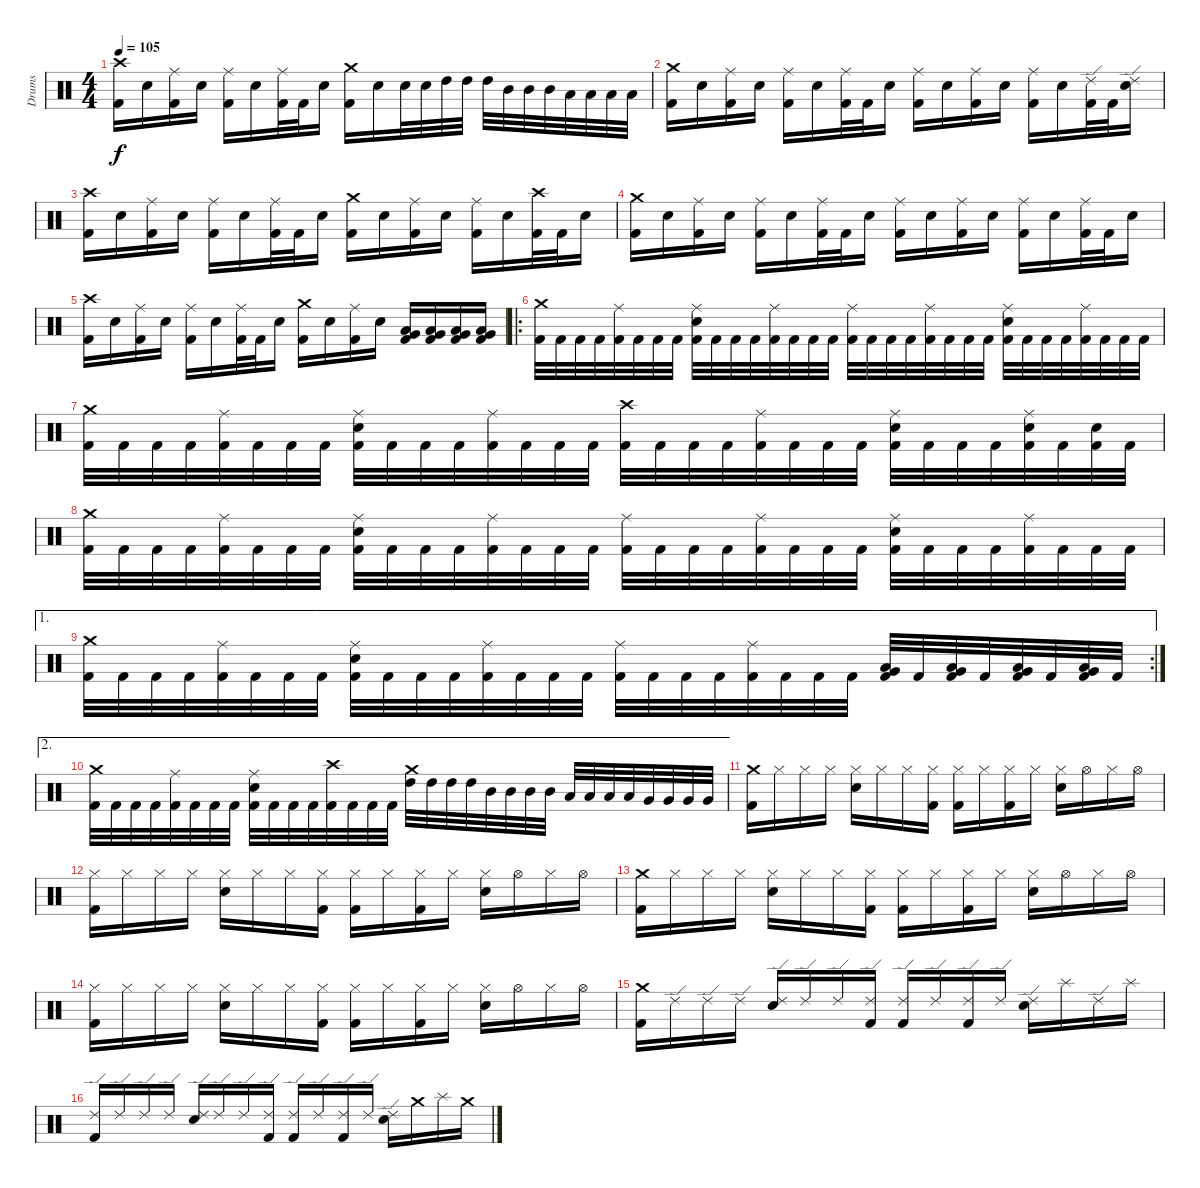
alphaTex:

\track ("Drums" "Drums") {instrument percussion}
\staff {score}
\articulation defaults
\ts (4 4)
\tempo 105
\clef neutral
\ks c
("Kick (hit) 2" "Crash high (hit)").16{dy f} "Electric Snare (hit)".16 ("Kick (hit) 2" "Ride (middle)").16 "Electric Snare (hit)".16 ("Kick (hit) 2" "Ride (middle)").16 "Electric Snare (hit)".16 ("Kick (hit) 2" "Ride (middle)").32 "Kick (hit) 2".32 "Electric Snare (hit)".16 ("Kick (hit) 2" "Crash medium (hit)").16 "Electric Snare (hit)".16 "Electric Snare (hit)".32 "Electric Snare (hit)".32 "High Tom (hit)".32 "High Tom (hit)".32 "High Tom (hit)".32 "Mid Tom (hit)".32 "Mid Tom (hit)".32 "Mid Tom (hit)".32 "Low Tom (hit)".32 "Low Tom (hit)".32 "Low Tom (hit)".32 "Low Tom (hit)".32 |
("Kick (hit) 2" "Crash medium (hit)").16 "Electric Snare (hit)".16 ("Kick (hit) 2" "Ride (middle)").16 "Electric Snare (hit)".16 ("Kick (hit) 2" "Ride (middle)").16 "Electric Snare (hit)".16 ("Kick (hit) 2" "Ride (middle)").32 "Kick (hit) 2".32 "Electric Snare (hit)".16 ("Kick (hit) 2" "Ride (middle)").16 "Electric Snare (hit)".16 ("Kick (hit) 2" "Ride (middle)").16 "Electric Snare (hit)".16 ("Kick (hit) 2" "Ride (middle)").16 "Electric Snare (hit)".16 ("Kick (hit) 2" "Ride (edge) 2").32 "Kick (hit) 2".32 ("Electric Snare (hit)" "Ride (edge) 2").16 |
("Kick (hit) 2" "Crash high (hit)").16 "Electric Snare (hit)".16 ("Kick (hit) 2" "Ride (middle)").16 "Electric Snare (hit)".16 ("Kick (hit) 2" "Ride (middle)").16 "Electric Snare (hit)".16 ("Kick (hit) 2" "Ride (middle)").32 "Kick (hit) 2".32 "Electric Snare (hit)".16 ("Kick (hit) 2" "Crash medium (hit)").16 "Electric Snare (hit)".16 ("Kick (hit) 2" "Ride (middle)").16 "Electric Snare (hit)".16 ("Kick (hit) 2" "Ride (middle)").16 "Electric Snare (hit)".16 ("Kick (hit) 2" "Crash high (hit)").32 "Kick (hit) 2".32 "Electric Snare (hit)".16 |
("Kick (hit) 2" "Crash medium (hit)").16 "Electric Snare (hit)".16 ("Kick (hit) 2" "Ride (middle)").16 "Electric Snare (hit)".16 ("Kick (hit) 2" "Ride (middle)").16 "Electric Snare (hit)".16 ("Kick (hit) 2" "Ride (middle)").32 "Kick (hit) 2".32 "Electric Snare (hit)".16 ("Kick (hit) 2" "Ride (middle)").16 "Electric Snare (hit)".16 ("Kick (hit) 2" "Ride (middle)").16 "Electric Snare (hit)".16 ("Kick (hit) 2" "Ride (middle)").16 "Electric Snare (hit)".16 ("Kick (hit) 2" "Ride (middle)").32 "Kick (hit) 2".32 "Electric Snare (hit)".16 |
("Kick (hit) 2" "Crash high (hit)").16 "Electric Snare (hit)".16 ("Kick (hit) 2" "Ride (middle)").16 "Electric Snare (hit)".16 ("Kick (hit) 2" "Ride (middle)").16 "Electric Snare (hit)".16 ("Kick (hit) 2" "Ride (middle)").32 "Kick (hit) 2".32 "Electric Snare (hit)".16 ("Kick (hit) 2" "Crash medium (hit)").16 "Electric Snare (hit)".16 ("Kick (hit) 2" "Ride (middle)").16 "Electric Snare (hit)".16 ("Kick (hit) 2" "Very Low Tom (hit)" "Low Tom (hit)").16 ("Kick (hit) 2" "Very Low Tom (hit)" "Low Tom (hit)").16 ("Kick (hit) 2" "Very Low Tom (hit)" "Low Tom (hit)").16 ("Kick (hit) 2" "Very Low Tom (hit)" "Low Tom (hit)").16 |
\ro
("Kick (hit) 2" "Crash medium (hit)").32 "Kick (hit) 2".32 "Kick (hit) 2".32 "Kick (hit) 2".32 ("Kick (hit) 2" "Ride (middle)").32 "Kick (hit) 2".32 "Kick (hit) 2".32 "Kick (hit) 2".32 ("Kick (hit) 2" "Electric Snare (hit)" "Ride (middle)").32 "Kick (hit) 2".32 "Kick (hit) 2".32 "Kick (hit) 2".32 ("Kick (hit) 2" "Ride (middle)").32 "Kick (hit) 2".32 "Kick (hit) 2".32 "Kick (hit) 2".32 ("Kick (hit) 2" "Ride (middle)").32 "Kick (hit) 2".32 "Kick (hit) 2".32 "Kick (hit) 2".32 ("Kick (hit) 2" "Ride (middle)").32 "Kick (hit) 2".32 "Kick (hit) 2".32 "Kick (hit) 2".32 ("Kick (hit) 2" "Electric Snare (hit)" "Ride (middle)").32 "Kick (hit) 2".32 "Kick (hit) 2".32 "Kick (hit) 2".32 ("Kick (hit) 2" "Ride (middle)").32 "Kick (hit) 2".32 "Kick (hit) 2".32 "Kick (hit) 2".32 |
("Kick (hit) 2" "Crash medium (hit)").32 "Kick (hit) 2".32 "Kick (hit) 2".32 "Kick (hit) 2".32 ("Kick (hit) 2" "Ride (middle)").32 "Kick (hit) 2".32 "Kick (hit) 2".32 "Kick (hit) 2".32 ("Kick (hit) 2" "Electric Snare (hit)" "Ride (middle)").32 "Kick (hit) 2".32 "Kick (hit) 2".32 "Kick (hit) 2".32 ("Kick (hit) 2" "Ride (middle)").32 "Kick (hit) 2".32 "Kick (hit) 2".32 "Kick (hit) 2".32 ("Kick (hit) 2" "Crash high (hit)").32 "Kick (hit) 2".32 "Kick (hit) 2".32 "Kick (hit) 2".32 ("Kick (hit) 2" "Ride (middle)").32 "Kick (hit) 2".32 "Kick (hit) 2".32 "Kick (hit) 2".32 ("Kick (hit) 2" "Electric Snare (hit)" "Ride (middle)").32 "Kick (hit) 2".32 "Kick (hit) 2".32 "Kick (hit) 2".32 ("Kick (hit) 2" "Electric Snare (hit)" "Ride (middle)").32 "Kick (hit) 2".32 ("Kick (hit) 2" "Electric Snare (hit)").32 "Kick (hit) 2".32 |
("Kick (hit) 2" "Crash medium (hit)").32 "Kick (hit) 2".32 "Kick (hit) 2".32 "Kick (hit) 2".32 ("Kick (hit) 2" "Ride (middle)").32 "Kick (hit) 2".32 "Kick (hit) 2".32 "Kick (hit) 2".32 ("Kick (hit) 2" "Electric Snare (hit)" "Ride (middle)").32 "Kick (hit) 2".32 "Kick (hit) 2".32 "Kick (hit) 2".32 ("Kick (hit) 2" "Ride (middle)").32 "Kick (hit) 2".32 "Kick (hit) 2".32 "Kick (hit) 2".32 ("Kick (hit) 2" "Ride (middle)").32 "Kick (hit) 2".32 "Kick (hit) 2".32 "Kick (hit) 2".32 ("Kick (hit) 2" "Ride (middle)").32 "Kick (hit) 2".32 "Kick (hit) 2".32 "Kick (hit) 2".32 ("Kick (hit) 2" "Electric Snare (hit)" "Ride (middle)").32 "Kick (hit) 2".32 "Kick (hit) 2".32 "Kick (hit) 2".32 ("Kick (hit) 2" "Ride (middle)").32 "Kick (hit) 2".32 "Kick (hit) 2".32 "Kick (hit) 2".32 |
\ae 1
\rc 2
("Kick (hit) 2" "Crash medium (hit)").32 "Kick (hit) 2".32 "Kick (hit) 2".32 "Kick (hit) 2".32 ("Kick (hit) 2" "Ride (middle)").32 "Kick (hit) 2".32 "Kick (hit) 2".32 "Kick (hit) 2".32 ("Kick (hit) 2" "Electric Snare (hit)" "Ride (middle)").32 "Kick (hit) 2".32 "Kick (hit) 2".32 "Kick (hit) 2".32 ("Kick (hit) 2" "Ride (middle)").32 "Kick (hit) 2".32 "Kick (hit) 2".32 "Kick (hit) 2".32 ("Kick (hit) 2" "Ride (middle)").32 "Kick (hit) 2".32 "Kick (hit) 2".32 "Kick (hit) 2".32 ("Kick (hit) 2" "Ride (middle)").32 "Kick (hit) 2".32 "Kick (hit) 2".32 "Kick (hit) 2".32 ("Kick (hit) 2" "Low Tom (hit)" "Very Low Tom (hit)").32 "Kick (hit) 2".32 ("Kick (hit) 2" "Low Tom (hit)" "Very Low Tom (hit)").32 "Kick (hit) 2".32 ("Kick (hit) 2" "Low Tom (hit)" "Very Low Tom (hit)").32 "Kick (hit) 2".32 ("Kick (hit) 2" "Low Tom (hit)" "Very Low Tom (hit)").32 "Kick (hit) 2".32 |
\ae 2
("Kick (hit) 2" "Crash medium (hit)").32 "Kick (hit) 2".32 "Kick (hit) 2".32 "Kick (hit) 2".32 ("Kick (hit) 2" "Ride (middle)").32 "Kick (hit) 2".32 "Kick (hit) 2".32 "Kick (hit) 2".32 ("Kick (hit) 2" "Electric Snare (hit)" "Ride (middle)").32 "Kick (hit) 2".32 "Kick (hit) 2".32 "Kick (hit) 2".32 ("Kick (hit) 2" "Crash high (hit)").32 "Kick (hit) 2".32 "Kick (hit) 2".32 "Kick (hit) 2".32 ("High Tom (hit)" "Crash medium (hit)").32 "High Tom (hit)".32 "High Tom (hit)".32 "High Tom (hit)".32 "Mid Tom (hit)".32 "Mid Tom (hit)".32 "Mid Tom (hit)".32 "Mid Tom (hit)".32 "Low Tom (hit)".32 "Low Tom (hit)".32 "Low Tom (hit)".32 "Low Tom (hit)".32 "Very Low Tom (hit)".32 "Very Low Tom (hit)".32 "Very Low Tom (hit)".32 "Very Low Tom (hit)".32 |
("Kick (hit) 2" "Crash medium (hit)").16 "Hi-Hat (closed)".16 "Hi-Hat (closed)".16 "Hi-Hat (closed)".16 ("Electric Snare (hit)" "Hi-Hat (closed)").16 "Hi-Hat (closed)".16 "Hi-Hat (closed)".16 ("Kick (hit) 2" "Hi-Hat (closed)").16 ("Kick (hit) 2" "Hi-Hat (closed)").16 "Hi-Hat (closed)".16 ("Kick (hit) 2" "Hi-Hat (closed)").16 "Hi-Hat (closed)".16 ("Electric Snare (hit)" "Hi-Hat (closed)").16 "Hi-Hat (open)".16 "Hi-Hat (closed)".16 "Hi-Hat (open)".16 |
("Kick (hit) 2" "Hi-Hat (closed)").16 "Hi-Hat (closed)".16 "Hi-Hat (closed)".16 "Hi-Hat (closed)".16 ("Electric Snare (hit)" "Hi-Hat (closed)").16 "Hi-Hat (closed)".16 "Hi-Hat (closed)".16 ("Kick (hit) 2" "Hi-Hat (closed)").16 ("Kick (hit) 2" "Hi-Hat (closed)").16 "Hi-Hat (closed)".16 ("Kick (hit) 2" "Hi-Hat (closed)").16 "Hi-Hat (closed)".16 ("Electric Snare (hit)" "Hi-Hat (closed)").16 "Hi-Hat (open)".16 "Hi-Hat (closed)".16 "Hi-Hat (open)".16 |
("Kick (hit) 2" "Crash medium (hit)").16 "Hi-Hat (closed)".16 "Hi-Hat (closed)".16 "Hi-Hat (closed)".16 ("Electric Snare (hit)" "Hi-Hat (closed)").16 "Hi-Hat (closed)".16 "Hi-Hat (closed)".16 ("Kick (hit) 2" "Hi-Hat (closed)").16 ("Kick (hit) 2" "Hi-Hat (closed)").16 "Hi-Hat (closed)".16 ("Kick (hit) 2" "Hi-Hat (closed)").16 "Hi-Hat (closed)".16 ("Electric Snare (hit)" "Hi-Hat (closed)").16 "Hi-Hat (open)".16 "Hi-Hat (closed)".16 "Hi-Hat (open)".16 |
("Kick (hit) 2" "Hi-Hat (closed)").16 "Hi-Hat (closed)".16 "Hi-Hat (closed)".16 "Hi-Hat (closed)".16 ("Electric Snare (hit)" "Hi-Hat (closed)").16 "Hi-Hat (closed)".16 "Hi-Hat (closed)".16 ("Kick (hit) 2" "Hi-Hat (closed)").16 ("Kick (hit) 2" "Hi-Hat (closed)").16 "Hi-Hat (closed)".16 ("Kick (hit) 2" "Hi-Hat (closed)").16 "Hi-Hat (closed)".16 ("Electric Snare (hit)" "Hi-Hat (closed)").16 "Hi-Hat (open)".16 "Hi-Hat (closed)".16 "Hi-Hat (open)".16 |
("Kick (hit) 2" "Crash medium (hit)").16 "Ride (edge) 2".16 "Ride (edge) 2".16 "Ride (edge) 2".16 ("Electric Snare (hit)" "Ride (edge) 2").16 "Ride (edge) 2".16 "Ride (edge) 2".16 ("Kick (hit) 2" "Ride (edge) 2").16 ("Kick (hit) 2" "Ride (edge) 2").16 "Ride (edge) 2".16 ("Kick (hit) 2" "Ride (edge) 2").16 "Ride (edge) 2".16 ("Electric Snare (hit)" "Ride (edge) 2").16 "Splash (hit)".16 "Ride (edge) 2".16 "Splash (hit)".16 |
("Kick (hit) 2" "Ride (edge) 2").16 "Ride (edge) 2".16 "Ride (edge) 2".16 "Ride (edge) 2".16 ("Electric Snare (hit)" "Ride (edge) 2").16 "Ride (edge) 2".16 "Ride (edge) 2".16 ("Kick (hit) 2" "Ride (edge) 2").16 ("Kick (hit) 2" "Ride (edge) 2").16 "Ride (edge) 2".16 ("Kick (hit) 2" "Ride (edge) 2").16 "Ride (edge) 2".16 ("Electric Snare (hit)" "Ride (edge) 2").16 "Crash medium (hit)".16 "Splash (hit)".16 "Crash medium (hit)".16
